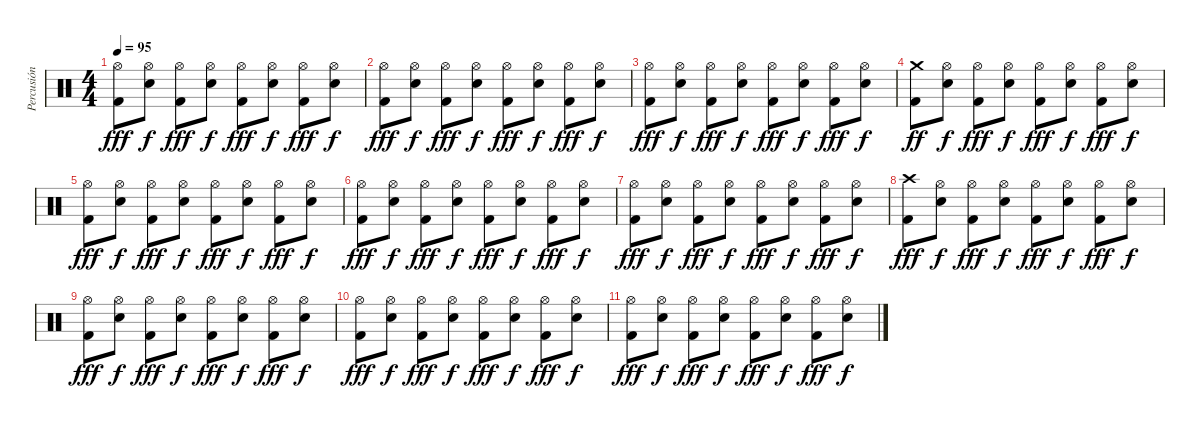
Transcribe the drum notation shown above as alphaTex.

\track ("Percusión" "Percusión") {instrument percussion}
\staff {score}
\articulation defaults
\ts (4 4)
\tempo 95
\clef neutral
\ks c
("Kick (hit) 2" "Hi-Hat (open)").8{dy fff} ("Electric Snare (hit)" "Hi-Hat (open)").8{dy f} ("Kick (hit) 2" "Hi-Hat (open)").8{dy fff} ("Electric Snare (hit)" "Hi-Hat (open)").8{dy f} ("Kick (hit) 2" "Hi-Hat (open)").8{dy fff} ("Electric Snare (hit)" "Hi-Hat (open)").8{dy f} ("Kick (hit) 2" "Hi-Hat (open)").8{dy fff} ("Electric Snare (hit)" "Hi-Hat (open)").8{dy f} |
("Kick (hit) 2" "Hi-Hat (open)").8{dy fff} ("Electric Snare (hit)" "Hi-Hat (open)").8{dy f} ("Kick (hit) 2" "Hi-Hat (open)").8{dy fff} ("Electric Snare (hit)" "Hi-Hat (open)").8{dy f} ("Kick (hit) 2" "Hi-Hat (open)").8{dy fff} ("Electric Snare (hit)" "Hi-Hat (open)").8{dy f} ("Kick (hit) 2" "Hi-Hat (open)").8{dy fff} ("Electric Snare (hit)" "Hi-Hat (open)").8{dy f} |
("Kick (hit) 2" "Hi-Hat (open)").8{dy fff} ("Electric Snare (hit)" "Hi-Hat (open)").8{dy f} ("Kick (hit) 2" "Hi-Hat (open)").8{dy fff} ("Electric Snare (hit)" "Hi-Hat (open)").8{dy f} ("Kick (hit) 2" "Hi-Hat (open)").8{dy fff} ("Electric Snare (hit)" "Hi-Hat (open)").8{dy f} ("Kick (hit) 2" "Hi-Hat (open)").8{dy fff} ("Electric Snare (hit)" "Hi-Hat (open)").8{dy f} |
("Kick (hit) 2" "Crash medium (hit)").8{dy ff} ("Electric Snare (hit)" "Hi-Hat (open)").8{dy f} ("Kick (hit) 2" "Hi-Hat (open)").8{dy fff} ("Electric Snare (hit)" "Hi-Hat (open)").8{dy f} ("Kick (hit) 2" "Hi-Hat (open)").8{dy fff} ("Electric Snare (hit)" "Hi-Hat (open)").8{dy f} ("Kick (hit) 2" "Hi-Hat (open)").8{dy fff} ("Electric Snare (hit)" "Hi-Hat (open)").8{dy f} |
("Kick (hit) 2" "Hi-Hat (open)").8{dy fff} ("Electric Snare (hit)" "Hi-Hat (open)").8{dy f} ("Kick (hit) 2" "Hi-Hat (open)").8{dy fff} ("Electric Snare (hit)" "Hi-Hat (open)").8{dy f} ("Kick (hit) 2" "Hi-Hat (open)").8{dy fff} ("Electric Snare (hit)" "Hi-Hat (open)").8{dy f} ("Kick (hit) 2" "Hi-Hat (open)").8{dy fff} ("Electric Snare (hit)" "Hi-Hat (open)").8{dy f} |
("Kick (hit) 2" "Hi-Hat (open)").8{dy fff volume 15} ("Electric Snare (hit)" "Hi-Hat (open)").8{dy f} ("Kick (hit) 2" "Hi-Hat (open)").8{dy fff} ("Electric Snare (hit)" "Hi-Hat (open)").8{dy f} ("Kick (hit) 2" "Hi-Hat (open)").8{dy fff} ("Electric Snare (hit)" "Hi-Hat (open)").8{dy f} ("Kick (hit) 2" "Hi-Hat (open)").8{dy fff} ("Electric Snare (hit)" "Hi-Hat (open)").8{dy f} |
("Kick (hit) 2" "Hi-Hat (open)").8{dy fff volume 14} ("Electric Snare (hit)" "Hi-Hat (open)").8{dy f} ("Kick (hit) 2" "Hi-Hat (open)").8{dy fff} ("Electric Snare (hit)" "Hi-Hat (open)").8{dy f} ("Kick (hit) 2" "Hi-Hat (open)").8{dy fff volume 13} ("Electric Snare (hit)" "Hi-Hat (open)").8{dy f} ("Kick (hit) 2" "Hi-Hat (open)").8{dy fff} ("Electric Snare (hit)" "Hi-Hat (open)").8{dy f} |
("Kick (hit) 2" "Crash high (hit)").8{dy fff volume 12} ("Electric Snare (hit)" "Hi-Hat (open)").8{dy f} ("Kick (hit) 2" "Hi-Hat (open)").8{dy fff} ("Electric Snare (hit)" "Hi-Hat (open)").8{dy f} ("Kick (hit) 2" "Hi-Hat (open)").8{dy fff volume 11} ("Electric Snare (hit)" "Hi-Hat (open)").8{dy f} ("Kick (hit) 2" "Hi-Hat (open)").8{dy fff} ("Electric Snare (hit)" "Hi-Hat (open)").8{dy f} |
("Kick (hit) 2" "Hi-Hat (open)").8{dy fff volume 10} ("Electric Snare (hit)" "Hi-Hat (open)").8{dy f} ("Kick (hit) 2" "Hi-Hat (open)").8{dy fff} ("Electric Snare (hit)" "Hi-Hat (open)").8{dy f} ("Kick (hit) 2" "Hi-Hat (open)").8{dy fff volume 9} ("Electric Snare (hit)" "Hi-Hat (open)").8{dy f} ("Kick (hit) 2" "Hi-Hat (open)").8{dy fff} ("Electric Snare (hit)" "Hi-Hat (open)").8{dy f} |
("Kick (hit) 2" "Hi-Hat (open)").8{dy fff volume 7} ("Electric Snare (hit)" "Hi-Hat (open)").8{dy f} ("Kick (hit) 2" "Hi-Hat (open)").8{dy fff} ("Electric Snare (hit)" "Hi-Hat (open)").8{dy f volume 6} ("Kick (hit) 2" "Hi-Hat (open)").8{dy fff} ("Electric Snare (hit)" "Hi-Hat (open)").8{dy f} ("Kick (hit) 2" "Hi-Hat (open)").8{dy fff volume 5} ("Electric Snare (hit)" "Hi-Hat (open)").8{dy f} |
("Kick (hit) 2" "Hi-Hat (open)").8{dy fff volume 4} ("Electric Snare (hit)" "Hi-Hat (open)").8{dy f} ("Kick (hit) 2" "Hi-Hat (open)").8{dy fff volume 3} ("Electric Snare (hit)" "Hi-Hat (open)").8{dy f} ("Kick (hit) 2" "Hi-Hat (open)").8{dy fff volume 2} ("Electric Snare (hit)" "Hi-Hat (open)").8{dy f} ("Kick (hit) 2" "Hi-Hat (open)").8{dy fff volume 1} ("Electric Snare (hit)" "Hi-Hat (open)").8{dy f}
